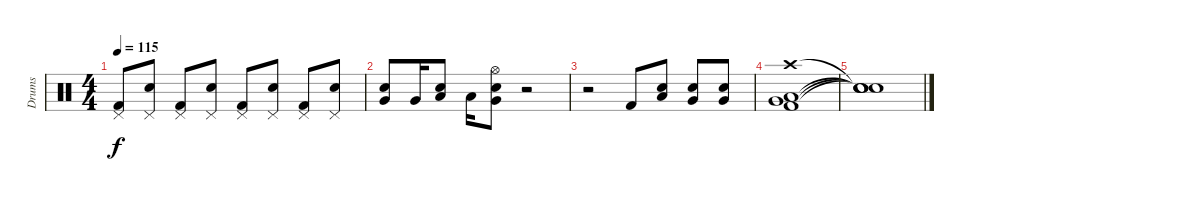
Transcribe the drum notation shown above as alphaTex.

\track ("Drums" "Drums") {instrument percussion}
\staff {score}
\articulation defaults
\ts (4 4)
\tempo 115
\clef neutral
\ks c
("Kick (hit) 2" "Pedal Hi-Hat (hit)").8{dy f} ("Snare (hit) 2" "Pedal Hi-Hat (hit)").8 ("Kick (hit) 2" "Pedal Hi-Hat (hit)").8 ("Snare (hit) 2" "Pedal Hi-Hat (hit)").8 ("Kick (hit) 2" "Pedal Hi-Hat (hit)").8 ("Snare (hit) 2" "Pedal Hi-Hat (hit)").8 ("Kick (hit) 2" "Pedal Hi-Hat (hit)").8 ("Snare (hit) 2" "Pedal Hi-Hat (hit)").8 |
("Snare (hit) 2" "Very Low Tom (hit)").8 "Very Low Tom (hit)".16 ("Snare (hit) 2" "Low Tom (hit)").8 "Low Tom (hit)".16 ("Snare (hit) 2" "Very Low Tom (hit)" "Hi-Hat (open)").8 r.2 |
r.2 "Kick (hit) 2".8 ("Snare (hit) 2" "Low Tom (hit)").8 ("Snare (hit) 2" "Very Low Tom (hit)").8 ("Snare (hit) 2" "Very Low Tom (hit)").8 |
("Crash high (hit)" "Low Tom (hit)" "Very Low Tom (hit)" "Kick (hit) 2").1 |
("Snare (hit)"{t} "Snare (hit)"{t} "Snare (hit)"{t} "Snare (hit)"{t}).1
